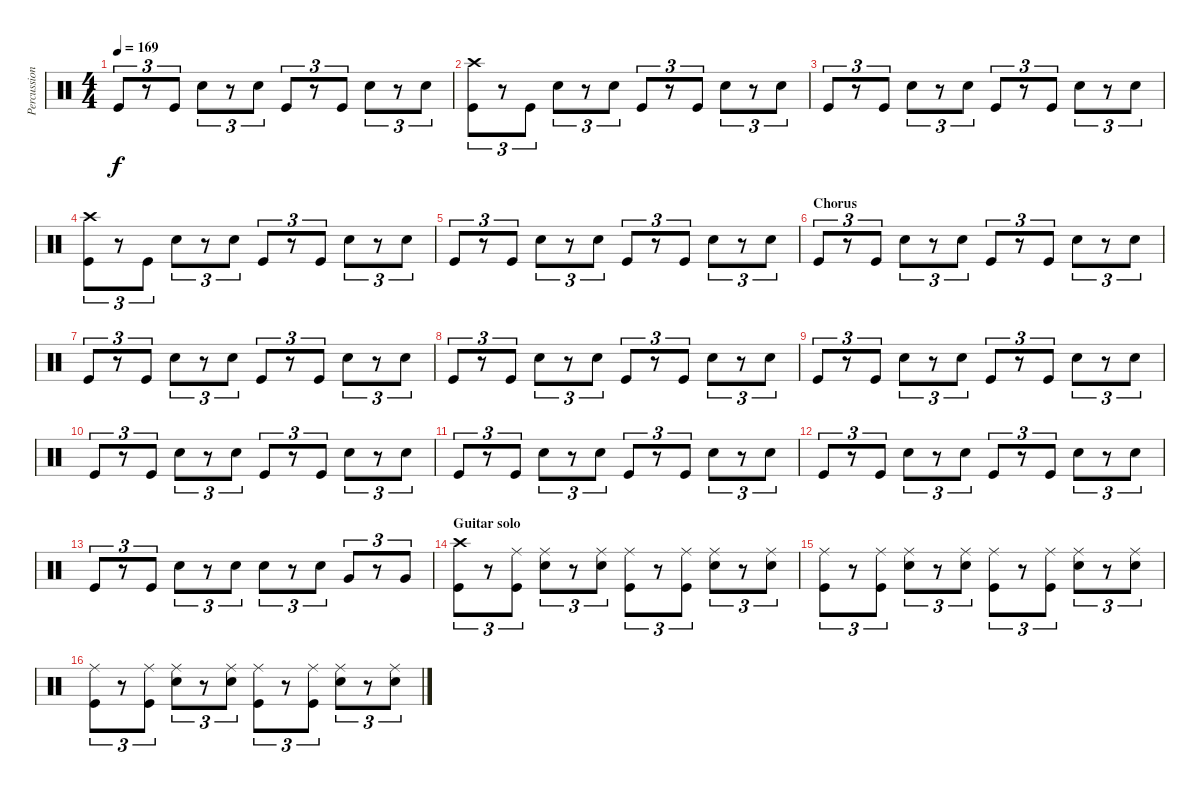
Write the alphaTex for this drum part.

\track ("Percussion" "Percussion") {instrument percussion}
\staff {score}
\articulation defaults
\ts (4 4)
\tempo 169
\clef neutral
\ks c "Kick (hit)".8{tu (3 2) dy f}
r.8{tu (3 2)} "Kick (hit)".8{tu (3 2)} "Snare (hit) 2".8{tu (3 2)} r.8{tu (3 2)} "Snare (hit) 2".8{tu (3 2)} "Kick (hit)".8{tu (3 2)} r.8{tu (3 2)} "Kick (hit)".8{tu (3 2)} "Snare (hit) 2".8{tu (3 2)} r.8{tu (3 2)} "Snare (hit) 2".8{tu (3 2)} |
("Crash high (hit)" "Kick (hit)").8{tu (3 2)} r.8{tu (3 2)} "Kick (hit)".8{tu (3 2)} "Snare (hit) 2".8{tu (3 2)} r.8{tu (3 2)} "Snare (hit) 2".8{tu (3 2)} "Kick (hit)".8{tu (3 2)} r.8{tu (3 2)} "Kick (hit)".8{tu (3 2)} "Snare (hit) 2".8{tu (3 2)} r.8{tu (3 2)} "Snare (hit) 2".8{tu (3 2)} |
"Kick (hit)".8{tu (3 2)} r.8{tu (3 2)} "Kick (hit)".8{tu (3 2)} "Snare (hit) 2".8{tu (3 2)} r.8{tu (3 2)} "Snare (hit) 2".8{tu (3 2)} "Kick (hit)".8{tu (3 2)} r.8{tu (3 2)} "Kick (hit)".8{tu (3 2)} "Snare (hit) 2".8{tu (3 2)} r.8{tu (3 2)} "Snare (hit) 2".8{tu (3 2)} |
("Crash high (hit)" "Kick (hit)").8{tu (3 2)} r.8{tu (3 2)} "Kick (hit)".8{tu (3 2)} "Snare (hit) 2".8{tu (3 2)} r.8{tu (3 2)} "Snare (hit) 2".8{tu (3 2)} "Kick (hit)".8{tu (3 2)} r.8{tu (3 2)} "Kick (hit)".8{tu (3 2)} "Snare (hit) 2".8{tu (3 2)} r.8{tu (3 2)} "Snare (hit) 2".8{tu (3 2)} |
"Kick (hit)".8{tu (3 2)} r.8{tu (3 2)} "Kick (hit)".8{tu (3 2)} "Snare (hit) 2".8{tu (3 2)} r.8{tu (3 2)} "Snare (hit) 2".8{tu (3 2)} "Kick (hit)".8{tu (3 2)} r.8{tu (3 2)} "Kick (hit)".8{tu (3 2)} "Snare (hit) 2".8{tu (3 2)} r.8{tu (3 2)} "Snare (hit) 2".8{tu (3 2)} |
\section ("" "Chorus")
"Kick (hit)".8{tu (3 2)} r.8{tu (3 2)} "Kick (hit)".8{tu (3 2)} "Snare (hit) 2".8{tu (3 2)} r.8{tu (3 2)} "Snare (hit) 2".8{tu (3 2)} "Kick (hit)".8{tu (3 2)} r.8{tu (3 2)} "Kick (hit)".8{tu (3 2)} "Snare (hit) 2".8{tu (3 2)} r.8{tu (3 2)} "Snare (hit) 2".8{tu (3 2)} |
"Kick (hit)".8{tu (3 2)} r.8{tu (3 2)} "Kick (hit)".8{tu (3 2)} "Snare (hit) 2".8{tu (3 2)} r.8{tu (3 2)} "Snare (hit) 2".8{tu (3 2)} "Kick (hit)".8{tu (3 2)} r.8{tu (3 2)} "Kick (hit)".8{tu (3 2)} "Snare (hit) 2".8{tu (3 2)} r.8{tu (3 2)} "Snare (hit) 2".8{tu (3 2)} |
"Kick (hit)".8{tu (3 2)} r.8{tu (3 2)} "Kick (hit)".8{tu (3 2)} "Snare (hit) 2".8{tu (3 2)} r.8{tu (3 2)} "Snare (hit) 2".8{tu (3 2)} "Kick (hit)".8{tu (3 2)} r.8{tu (3 2)} "Kick (hit)".8{tu (3 2)} "Snare (hit) 2".8{tu (3 2)} r.8{tu (3 2)} "Snare (hit) 2".8{tu (3 2)} |
"Kick (hit)".8{tu (3 2)} r.8{tu (3 2)} "Kick (hit)".8{tu (3 2)} "Snare (hit) 2".8{tu (3 2)} r.8{tu (3 2)} "Snare (hit) 2".8{tu (3 2)} "Kick (hit)".8{tu (3 2)} r.8{tu (3 2)} "Kick (hit)".8{tu (3 2)} "Snare (hit) 2".8{tu (3 2)} r.8{tu (3 2)} "Snare (hit) 2".8{tu (3 2)} |
"Kick (hit)".8{tu (3 2)} r.8{tu (3 2)} "Kick (hit)".8{tu (3 2)} "Snare (hit) 2".8{tu (3 2)} r.8{tu (3 2)} "Snare (hit) 2".8{tu (3 2)} "Kick (hit)".8{tu (3 2)} r.8{tu (3 2)} "Kick (hit)".8{tu (3 2)} "Snare (hit) 2".8{tu (3 2)} r.8{tu (3 2)} "Snare (hit) 2".8{tu (3 2)} |
"Kick (hit)".8{tu (3 2)} r.8{tu (3 2)} "Kick (hit)".8{tu (3 2)} "Snare (hit) 2".8{tu (3 2)} r.8{tu (3 2)} "Snare (hit) 2".8{tu (3 2)} "Kick (hit)".8{tu (3 2)} r.8{tu (3 2)} "Kick (hit)".8{tu (3 2)} "Snare (hit) 2".8{tu (3 2)} r.8{tu (3 2)} "Snare (hit) 2".8{tu (3 2)} |
"Kick (hit)".8{tu (3 2)} r.8{tu (3 2)} "Kick (hit)".8{tu (3 2)} "Snare (hit) 2".8{tu (3 2)} r.8{tu (3 2)} "Snare (hit) 2".8{tu (3 2)} "Kick (hit)".8{tu (3 2)} r.8{tu (3 2)} "Kick (hit)".8{tu (3 2)} "Snare (hit) 2".8{tu (3 2)} r.8{tu (3 2)} "Snare (hit) 2".8{tu (3 2)} |
"Kick (hit)".8{tu (3 2)} r.8{tu (3 2)} "Kick (hit)".8{tu (3 2)} "Snare (hit) 2".8{tu (3 2)} r.8{tu (3 2)} "Snare (hit) 2".8{tu (3 2)} "Snare (hit) 2".8{tu (3 2)} r.8{tu (3 2)} "Snare (hit) 2".8{tu (3 2)} "Very Low Tom (hit)".8{tu (3 2)} r.8{tu (3 2)} "Very Low Tom (hit)".8{tu (3 2)} |
\section ("" "Guitar solo")
("Crash high (hit)" "Kick (hit)").8{tu (3 2)} r.8{tu (3 2)} ("Ride (middle)" "Kick (hit)").8{tu (3 2)} ("Ride (middle)" "Snare (hit) 2").8{tu (3 2)} r.8{tu (3 2)} ("Ride (middle)" "Snare (hit) 2").8{tu (3 2)} ("Ride (middle)" "Kick (hit)").8{tu (3 2)} r.8{tu (3 2)} ("Ride (middle)" "Kick (hit)").8{tu (3 2)} ("Ride (middle)" "Snare (hit) 2").8{tu (3 2)} r.8{tu (3 2)} ("Ride (middle)" "Snare (hit) 2").8{tu (3 2)} |
("Ride (middle)" "Kick (hit)").8{tu (3 2)} r.8{tu (3 2)} ("Ride (middle)" "Kick (hit)").8{tu (3 2)} ("Ride (middle)" "Snare (hit) 2").8{tu (3 2)} r.8{tu (3 2)} ("Ride (middle)" "Snare (hit) 2").8{tu (3 2)} ("Ride (middle)" "Kick (hit)").8{tu (3 2)} r.8{tu (3 2)} ("Ride (middle)" "Kick (hit)").8{tu (3 2)} ("Ride (middle)" "Snare (hit) 2").8{tu (3 2)} r.8{tu (3 2)} ("Ride (middle)" "Snare (hit) 2").8{tu (3 2)} |
("Ride (middle)" "Kick (hit)").8{tu (3 2)} r.8{tu (3 2)} ("Ride (middle)" "Kick (hit)").8{tu (3 2)} ("Ride (middle)" "Snare (hit) 2").8{tu (3 2)} r.8{tu (3 2)} ("Ride (middle)" "Snare (hit) 2").8{tu (3 2)} ("Ride (middle)" "Kick (hit)").8{tu (3 2)} r.8{tu (3 2)} ("Ride (middle)" "Kick (hit)").8{tu (3 2)} ("Ride (middle)" "Snare (hit) 2").8{tu (3 2)} r.8{tu (3 2)} ("Ride (middle)" "Snare (hit) 2").8{tu (3 2)}
